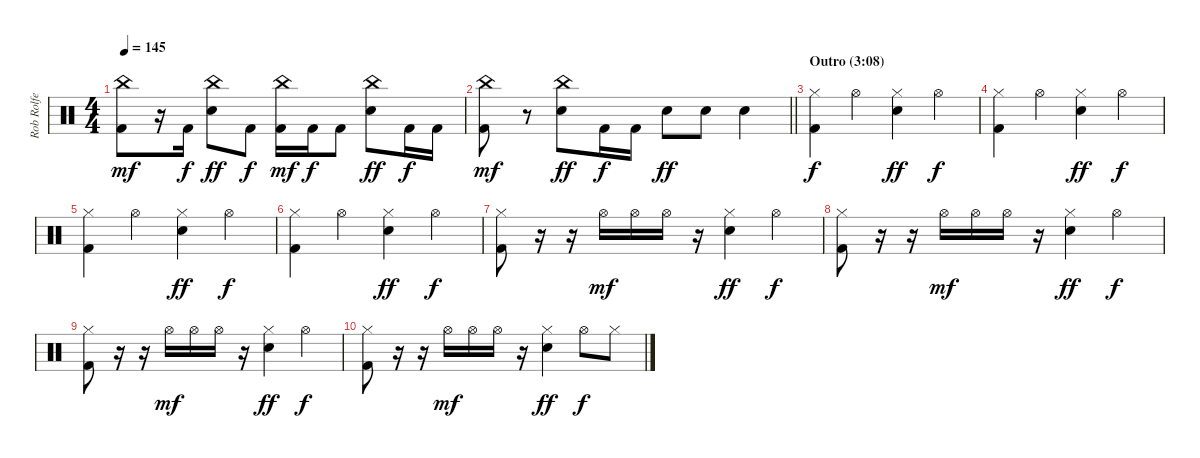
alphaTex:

\track ("Rob Rolfe [Drums]" "Rob Rolfe ") {instrument percussion}
\staff {score}
\articulation defaults
\ts (4 4)
\tempo 145
\clef neutral
\ks c
("China (hit)" "Kick (hit) 2").8{dy mf} r.16 "Kick (hit) 2".16{dy f} ("China (hit)" "Electric Snare (hit)").8{dy ff} "Kick (hit) 2".8{dy f} ("China (hit)" "Kick (hit) 2").16{dy mf} "Kick (hit) 2".16{dy f} "Kick (hit) 2".8 ("China (hit)" "Electric Snare (hit)").8{dy ff} "Kick (hit) 2".16{dy f} "Kick (hit) 2".16 |
\barLineRight lightlight
("China (hit)" "Kick (hit) 2").8{dy mf} r.8 ("China (hit)" "Electric Snare (hit)").8{dy ff} "Kick (hit) 2".16{dy f} "Kick (hit) 2".16 "Electric Snare (hit)".8{dy ff} "Electric Snare (hit)".8 "Electric Snare (hit)".4 |
\section ("" "Outro (3:08)")
("Hi-Hat (closed)" "Kick (hit) 2").4{dy f} "Hi-Hat (open)".4 ("Hi-Hat (closed)" "Electric Snare (hit)").4{dy ff} "Hi-Hat (open)".4{dy f} |
("Hi-Hat (closed)" "Kick (hit) 2").4 "Hi-Hat (open)".4 ("Hi-Hat (closed)" "Electric Snare (hit)").4{dy ff} "Hi-Hat (open)".4{dy f} |
("Hi-Hat (closed)" "Kick (hit) 2").4 "Hi-Hat (open)".4 ("Hi-Hat (closed)" "Electric Snare (hit)").4{dy ff} "Hi-Hat (open)".4{dy f} |
("Hi-Hat (closed)" "Kick (hit) 2").4 "Hi-Hat (open)".4 ("Hi-Hat (closed)" "Electric Snare (hit)").4{dy ff} "Hi-Hat (open)".4{dy f} |
("Hi-Hat (closed)" "Kick (hit) 2").8 r.16 r.16 "Hi-Hat (open)".16{dy mf} "Hi-Hat (open)".16 "Hi-Hat (open)".16 r.16 ("Hi-Hat (closed)" "Electric Snare (hit)").4{dy ff} "Hi-Hat (open)".4{dy f} |
("Hi-Hat (closed)" "Kick (hit) 2").8 r.16 r.16 "Hi-Hat (open)".16{dy mf} "Hi-Hat (open)".16 "Hi-Hat (open)".16 r.16 ("Hi-Hat (closed)" "Electric Snare (hit)").4{dy ff} "Hi-Hat (open)".4{dy f} |
("Hi-Hat (closed)" "Kick (hit) 2").8 r.16 r.16 "Hi-Hat (open)".16{dy mf} "Hi-Hat (open)".16 "Hi-Hat (open)".16 r.16 ("Hi-Hat (closed)" "Electric Snare (hit)").4{dy ff} "Hi-Hat (open)".4{dy f} |
("Hi-Hat (closed)" "Kick (hit) 2").8 r.16 r.16 "Hi-Hat (open)".16{dy mf} "Hi-Hat (open)".16 "Hi-Hat (open)".16 r.16 ("Hi-Hat (closed)" "Electric Snare (hit)").4{dy ff} "Hi-Hat (open)".8{dy f} "Hi-Hat (closed)".8
